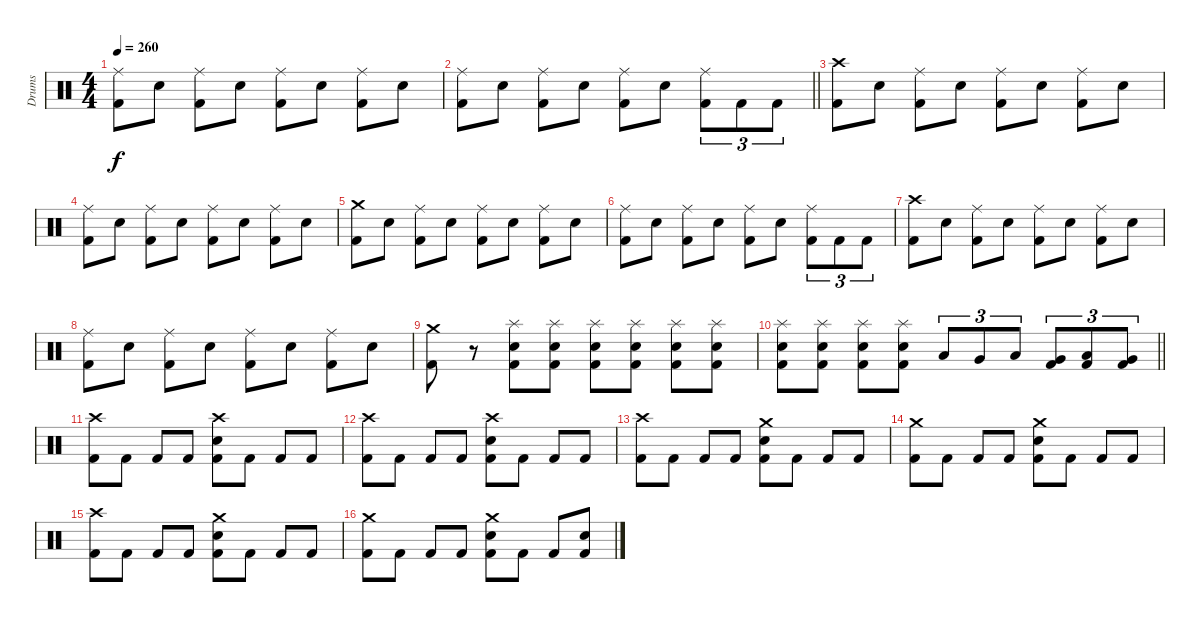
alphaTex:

\track ("Drums" "Drums") {instrument percussion}
\staff {score}
\articulation defaults
\ts (4 4)
\tempo 260
\clef neutral
\ks c
("Ride (middle)" "Kick (hit) 2").8{dy f} "Electric Snare (hit)".8 ("Ride (middle)" "Kick (hit) 2").8 "Electric Snare (hit)".8 ("Ride (middle)" "Kick (hit) 2").8 "Electric Snare (hit)".8 ("Ride (middle)" "Kick (hit) 2").8 "Electric Snare (hit)".8 |
\barLineRight lightlight
("Ride (middle)" "Kick (hit) 2").8 "Electric Snare (hit)".8 ("Ride (middle)" "Kick (hit) 2").8 "Electric Snare (hit)".8 ("Ride (middle)" "Kick (hit) 2").8 "Electric Snare (hit)".8 ("Ride (middle)" "Kick (hit) 2").8{tu (3 2)} "Kick (hit) 2".8{tu (3 2)} "Kick (hit) 2".8{tu (3 2)} |
("Crash high (hit)" "Kick (hit) 2").8 "Electric Snare (hit)".8 ("Ride (middle)" "Kick (hit) 2").8 "Electric Snare (hit)".8 ("Ride (middle)" "Kick (hit) 2").8 "Electric Snare (hit)".8 ("Ride (middle)" "Kick (hit) 2").8 "Electric Snare (hit)".8 |
("Ride (middle)" "Kick (hit) 2").8 "Electric Snare (hit)".8 ("Ride (middle)" "Kick (hit) 2").8 "Electric Snare (hit)".8 ("Ride (middle)" "Kick (hit) 2").8 "Electric Snare (hit)".8 ("Ride (middle)" "Kick (hit) 2").8 "Electric Snare (hit)".8 |
("Crash medium (hit)" "Kick (hit) 2").8 "Electric Snare (hit)".8 ("Ride (middle)" "Kick (hit) 2").8 "Electric Snare (hit)".8 ("Ride (middle)" "Kick (hit) 2").8 "Electric Snare (hit)".8 ("Ride (middle)" "Kick (hit) 2").8 "Electric Snare (hit)".8 |
("Ride (middle)" "Kick (hit) 2").8 "Electric Snare (hit)".8 ("Ride (middle)" "Kick (hit) 2").8 "Electric Snare (hit)".8 ("Ride (middle)" "Kick (hit) 2").8 "Electric Snare (hit)".8 ("Ride (middle)" "Kick (hit) 2").8{tu (3 2)} "Kick (hit) 2".8{tu (3 2)} "Kick (hit) 2".8{tu (3 2)} |
("Crash high (hit)" "Kick (hit) 2").8 "Electric Snare (hit)".8 ("Ride (middle)" "Kick (hit) 2").8 "Electric Snare (hit)".8 ("Ride (middle)" "Kick (hit) 2").8 "Electric Snare (hit)".8 ("Ride (middle)" "Kick (hit) 2").8 "Electric Snare (hit)".8 |
("Ride (middle)" "Kick (hit) 2").8 "Electric Snare (hit)".8 ("Ride (middle)" "Kick (hit) 2").8 "Electric Snare (hit)".8 ("Ride (middle)" "Kick (hit) 2").8 "Electric Snare (hit)".8 ("Ride (middle)" "Kick (hit) 2").8 "Electric Snare (hit)".8 |
("Crash medium (hit)" "Kick (hit) 2").8 r.8 ("Splash (hit)" "Electric Snare (hit)" "Kick (hit) 2").8 ("Splash (hit)" "Electric Snare (hit)" "Kick (hit) 2").8 ("Splash (hit)" "Electric Snare (hit)" "Kick (hit) 2").8 ("Splash (hit)" "Electric Snare (hit)" "Kick (hit) 2").8 ("Splash (hit)" "Electric Snare (hit)" "Kick (hit) 2").8 ("Splash (hit)" "Electric Snare (hit)" "Kick (hit) 2").8 |
\barLineRight lightlight
("Splash (hit)" "Electric Snare (hit)" "Kick (hit) 2").8 ("Splash (hit)" "Electric Snare (hit)" "Kick (hit) 2").8 ("Splash (hit)" "Electric Snare (hit)" "Kick (hit) 2").8 ("Splash (hit)" "Electric Snare (hit)" "Kick (hit) 2").8 "Low Floor Tom (hit)".8{tu (3 2)} "Very Low Tom (hit)".8{tu (3 2)} "Low Floor Tom (hit)".8{tu (3 2)} ("Very Low Tom (hit)" "Kick (hit) 2").8{tu (3 2)} ("Low Tom (hit)" "Kick (hit) 2").8{tu (3 2)} ("Very Low Tom (hit)" "Kick (hit) 2").8{tu (3 2)} |
("Crash high (hit)" "Kick (hit) 2").8 "Kick (hit) 2".8 "Kick (hit) 2".8 "Kick (hit) 2".8 ("Crash high (hit)" "Electric Snare (hit)" "Kick (hit) 2").8 "Kick (hit) 2".8 "Kick (hit) 2".8 "Kick (hit) 2".8 |
("Crash high (hit)" "Kick (hit) 2").8 "Kick (hit) 2".8 "Kick (hit) 2".8 "Kick (hit) 2".8 ("Crash high (hit)" "Electric Snare (hit)" "Kick (hit) 2").8 "Kick (hit) 2".8 "Kick (hit) 2".8 "Kick (hit) 2".8 |
("Crash high (hit)" "Kick (hit) 2").8 "Kick (hit) 2".8 "Kick (hit) 2".8 "Kick (hit) 2".8 ("Crash medium (hit)" "Electric Snare (hit)" "Kick (hit) 2").8 "Kick (hit) 2".8 "Kick (hit) 2".8 "Kick (hit) 2".8 |
("Crash medium (hit)" "Kick (hit) 2").8 "Kick (hit) 2".8 "Kick (hit) 2".8 "Kick (hit) 2".8 ("Crash medium (hit)" "Electric Snare (hit)" "Kick (hit) 2").8 "Kick (hit) 2".8 "Kick (hit) 2".8 "Kick (hit) 2".8 |
("Crash high (hit)" "Kick (hit) 2").8 "Kick (hit) 2".8 "Kick (hit) 2".8 "Kick (hit) 2".8 ("Crash medium (hit)" "Electric Snare (hit)" "Kick (hit) 2").8 "Kick (hit) 2".8 "Kick (hit) 2".8 "Kick (hit) 2".8 |
("Crash medium (hit)" "Kick (hit) 2").8 "Kick (hit) 2".8 "Kick (hit) 2".8 "Kick (hit) 2".8 ("Crash medium (hit)" "Electric Snare (hit)" "Kick (hit) 2").8 "Kick (hit) 2".8 "Kick (hit) 2".8 ("Electric Snare (hit)" "Kick (hit) 2").8
